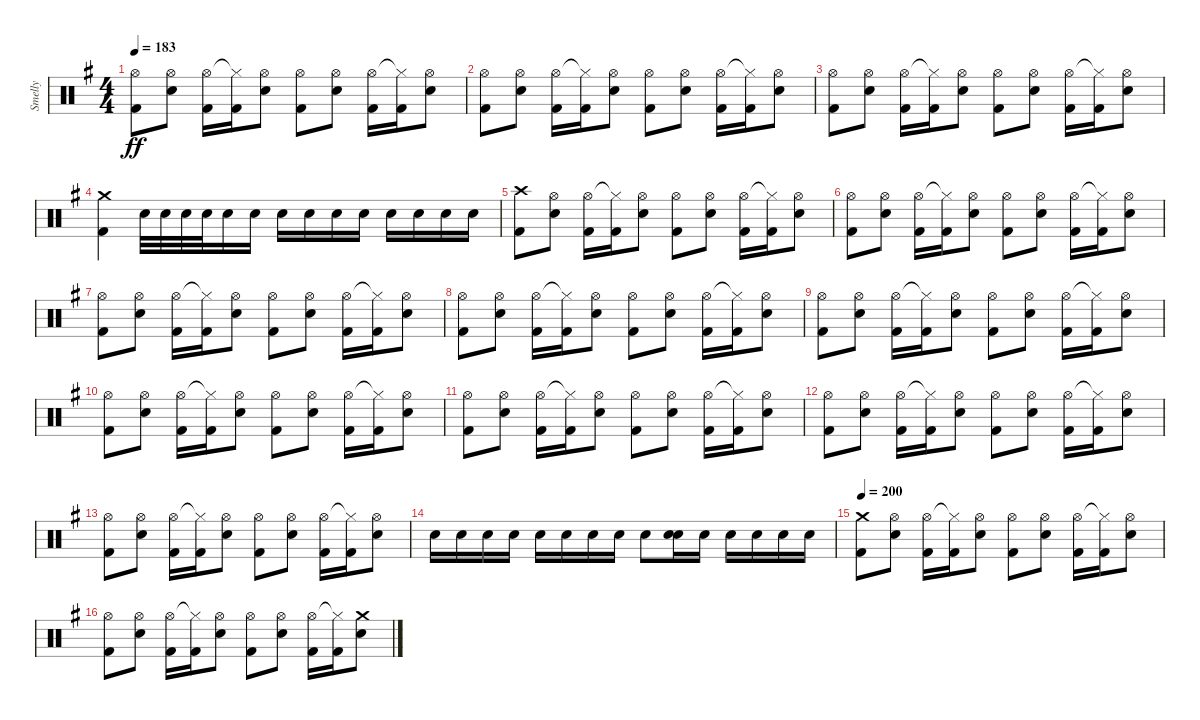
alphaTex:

\track ("Smelly" "Smelly") {instrument percussion}
\staff {score}
\articulation defaults
\ts (4 4)
\tempo 183
\clef neutral
\ks eminor
("Hi-Hat (open)" "Kick (hit) 2").8{dy ff} ("Hi-Hat (open)" "Electric Snare (hit)").8 ("Hi-Hat (open)" "Kick (hit) 2").16 ("Hi-Hat (closed)"{t} "Kick (hit) 2").16 ("Hi-Hat (open)" "Electric Snare (hit)").8 ("Hi-Hat (open)" "Kick (hit) 2").8 ("Hi-Hat (open)" "Electric Snare (hit)").8 ("Hi-Hat (open)" "Kick (hit) 2").16 ("Hi-Hat (closed)"{t} "Kick (hit) 2").16 ("Hi-Hat (open)" "Electric Snare (hit)").8 |
("Hi-Hat (open)" "Kick (hit) 2").8 ("Hi-Hat (open)" "Electric Snare (hit)").8 ("Hi-Hat (open)" "Kick (hit) 2").16 ("Hi-Hat (closed)"{t} "Kick (hit) 2").16 ("Hi-Hat (open)" "Electric Snare (hit)").8 ("Hi-Hat (open)" "Kick (hit) 2").8 ("Hi-Hat (open)" "Electric Snare (hit)").8 ("Hi-Hat (open)" "Kick (hit) 2").16 ("Hi-Hat (closed)"{t} "Kick (hit) 2").16 ("Hi-Hat (open)" "Electric Snare (hit)").8 |
("Hi-Hat (open)" "Kick (hit) 2").8 ("Hi-Hat (open)" "Electric Snare (hit)").8 ("Hi-Hat (open)" "Kick (hit) 2").16 ("Hi-Hat (closed)"{t} "Kick (hit) 2").16 ("Hi-Hat (open)" "Electric Snare (hit)").8 ("Hi-Hat (open)" "Kick (hit) 2").8 ("Hi-Hat (open)" "Electric Snare (hit)").8 ("Hi-Hat (open)" "Kick (hit) 2").16 ("Hi-Hat (closed)"{t} "Kick (hit) 2").16 ("Hi-Hat (open)" "Electric Snare (hit)").8 |
("Crash medium (hit)" "Kick (hit) 2").4 "Electric Snare (hit)".32 "Electric Snare (hit)".32 "Electric Snare (hit)".32 "Electric Snare (hit)".32 "Electric Snare (hit)".16 "Electric Snare (hit)".16 "Electric Snare (hit)".16 "Electric Snare (hit)".16 "Electric Snare (hit)".16 "Electric Snare (hit)".16 "Electric Snare (hit)".16 "Electric Snare (hit)".16 "Electric Snare (hit)".16 "Electric Snare (hit)".16 |
("Crash high (hit)" "Kick (hit) 2").8 ("Hi-Hat (open)" "Electric Snare (hit)").8 ("Hi-Hat (open)" "Kick (hit) 2").16 ("Hi-Hat (closed)"{t} "Kick (hit) 2").16 ("Hi-Hat (open)" "Electric Snare (hit)").8 ("Hi-Hat (open)" "Kick (hit) 2").8 ("Hi-Hat (open)" "Electric Snare (hit)").8 ("Hi-Hat (open)" "Kick (hit) 2").16 ("Hi-Hat (closed)"{t} "Kick (hit) 2").16 ("Hi-Hat (open)" "Electric Snare (hit)").8 |
("Hi-Hat (open)" "Kick (hit) 2").8 ("Hi-Hat (open)" "Electric Snare (hit)").8 ("Hi-Hat (open)" "Kick (hit) 2").16 ("Hi-Hat (closed)"{t} "Kick (hit) 2").16 ("Hi-Hat (open)" "Electric Snare (hit)").8 ("Hi-Hat (open)" "Kick (hit) 2").8 ("Hi-Hat (open)" "Electric Snare (hit)").8 ("Hi-Hat (open)" "Kick (hit) 2").16 ("Hi-Hat (closed)"{t} "Kick (hit) 2").16 ("Hi-Hat (open)" "Electric Snare (hit)").8 |
("Hi-Hat (open)" "Kick (hit) 2").8 ("Hi-Hat (open)" "Electric Snare (hit)").8 ("Hi-Hat (open)" "Kick (hit) 2").16 ("Hi-Hat (closed)"{t} "Kick (hit) 2").16 ("Hi-Hat (open)" "Electric Snare (hit)").8 ("Hi-Hat (open)" "Kick (hit) 2").8 ("Hi-Hat (open)" "Electric Snare (hit)").8 ("Hi-Hat (open)" "Kick (hit) 2").16 ("Hi-Hat (closed)"{t} "Kick (hit) 2").16 ("Hi-Hat (open)" "Electric Snare (hit)").8 |
("Hi-Hat (open)" "Kick (hit) 2").8 ("Hi-Hat (open)" "Electric Snare (hit)").8 ("Hi-Hat (open)" "Kick (hit) 2").16 ("Hi-Hat (closed)"{t} "Kick (hit) 2").16 ("Hi-Hat (open)" "Electric Snare (hit)").8 ("Hi-Hat (open)" "Kick (hit) 2").8 ("Hi-Hat (open)" "Electric Snare (hit)").8 ("Hi-Hat (open)" "Kick (hit) 2").16 ("Hi-Hat (closed)"{t} "Kick (hit) 2").16 ("Hi-Hat (open)" "Electric Snare (hit)").8 |
("Hi-Hat (open)" "Kick (hit) 2").8 ("Hi-Hat (open)" "Electric Snare (hit)").8 ("Hi-Hat (open)" "Kick (hit) 2").16 ("Hi-Hat (closed)"{t} "Kick (hit) 2").16 ("Hi-Hat (open)" "Electric Snare (hit)").8 ("Hi-Hat (open)" "Kick (hit) 2").8 ("Hi-Hat (open)" "Electric Snare (hit)").8 ("Hi-Hat (open)" "Kick (hit) 2").16 ("Hi-Hat (closed)"{t} "Kick (hit) 2").16 ("Hi-Hat (open)" "Electric Snare (hit)").8 |
("Hi-Hat (open)" "Kick (hit) 2").8 ("Hi-Hat (open)" "Electric Snare (hit)").8 ("Hi-Hat (open)" "Kick (hit) 2").16 ("Hi-Hat (closed)"{t} "Kick (hit) 2").16 ("Hi-Hat (open)" "Electric Snare (hit)").8 ("Hi-Hat (open)" "Kick (hit) 2").8 ("Hi-Hat (open)" "Electric Snare (hit)").8 ("Hi-Hat (open)" "Kick (hit) 2").16 ("Hi-Hat (closed)"{t} "Kick (hit) 2").16 ("Hi-Hat (open)" "Electric Snare (hit)").8 |
("Hi-Hat (open)" "Kick (hit) 2").8 ("Hi-Hat (open)" "Electric Snare (hit)").8 ("Hi-Hat (open)" "Kick (hit) 2").16 ("Hi-Hat (closed)"{t} "Kick (hit) 2").16 ("Hi-Hat (open)" "Electric Snare (hit)").8 ("Hi-Hat (open)" "Kick (hit) 2").8 ("Hi-Hat (open)" "Electric Snare (hit)").8 ("Hi-Hat (open)" "Kick (hit) 2").16 ("Hi-Hat (closed)"{t} "Kick (hit) 2").16 ("Hi-Hat (open)" "Electric Snare (hit)").8 |
("Hi-Hat (open)" "Kick (hit) 2").8 ("Hi-Hat (open)" "Electric Snare (hit)").8 ("Hi-Hat (open)" "Kick (hit) 2").16 ("Hi-Hat (closed)"{t} "Kick (hit) 2").16 ("Hi-Hat (open)" "Electric Snare (hit)").8 ("Hi-Hat (open)" "Kick (hit) 2").8 ("Hi-Hat (open)" "Electric Snare (hit)").8 ("Hi-Hat (open)" "Kick (hit) 2").16 ("Hi-Hat (closed)"{t} "Kick (hit) 2").16 ("Hi-Hat (open)" "Electric Snare (hit)").8 |
("Hi-Hat (open)" "Kick (hit) 2").8 ("Hi-Hat (open)" "Electric Snare (hit)").8 ("Hi-Hat (open)" "Kick (hit) 2").16 ("Hi-Hat (closed)"{t} "Kick (hit) 2").16 ("Hi-Hat (open)" "Electric Snare (hit)").8 ("Hi-Hat (open)" "Kick (hit) 2").8 ("Hi-Hat (open)" "Electric Snare (hit)").8 ("Hi-Hat (open)" "Kick (hit) 2").16 ("Hi-Hat (closed)"{t} "Kick (hit) 2").16 ("Hi-Hat (open)" "Electric Snare (hit)").8 |
"Electric Snare (hit)".16 "Electric Snare (hit)".16 "Electric Snare (hit)".16 "Electric Snare (hit)".16 "Electric Snare (hit)".16 "Electric Snare (hit)".16 "Electric Snare (hit)".16 "Electric Snare (hit)".16 "Electric Snare (hit)".8 ("Electric Snare (hit)" "Electric Snare (hit)").16 "Electric Snare (hit)".16 "Electric Snare (hit)".16 "Electric Snare (hit)".16 "Electric Snare (hit)".16 "Electric Snare (hit)".16 |
\tempo 200
("Crash medium (hit)" "Kick (hit) 2").8 ("Hi-Hat (open)" "Electric Snare (hit)").8 ("Hi-Hat (open)" "Kick (hit) 2").16 ("Hi-Hat (closed)"{t} "Kick (hit) 2").16 ("Hi-Hat (open)" "Electric Snare (hit)").8 ("Hi-Hat (open)" "Kick (hit) 2").8 ("Hi-Hat (open)" "Electric Snare (hit)").8 ("Hi-Hat (open)" "Kick (hit) 2").16 ("Hi-Hat (closed)"{t} "Kick (hit) 2").16 ("Hi-Hat (open)" "Electric Snare (hit)").8 |
("Hi-Hat (open)" "Kick (hit) 2").8 ("Hi-Hat (open)" "Electric Snare (hit)").8 ("Hi-Hat (open)" "Kick (hit) 2").16 ("Hi-Hat (closed)"{t} "Kick (hit) 2").16 ("Hi-Hat (open)" "Electric Snare (hit)").8 ("Hi-Hat (open)" "Kick (hit) 2").8 ("Hi-Hat (open)" "Electric Snare (hit)").8 ("Hi-Hat (open)" "Kick (hit) 2").16 ("Hi-Hat (closed)"{t} "Kick (hit) 2").16 ("Crash medium (hit)" "Electric Snare (hit)").8
